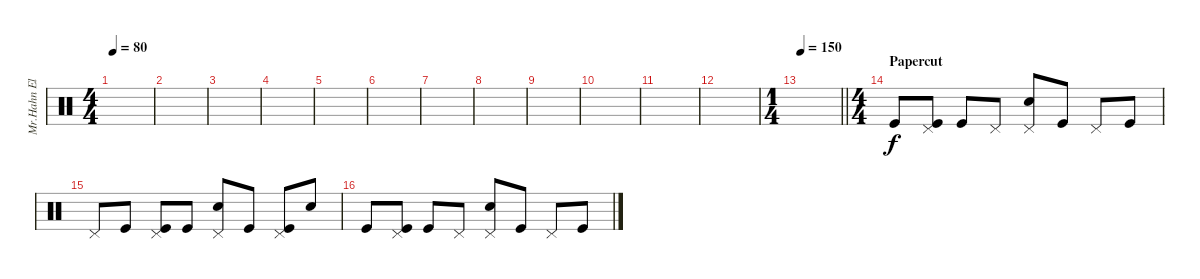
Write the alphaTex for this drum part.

\track ("Mr.Hahn Eletronic Drums" "Mr.Hahn El") {instrument percussion}
\staff {score}
\articulation defaults
\ts (4 4)
\tempo 80
\clef neutral
\ks c
|
|
|
|
|
|
|
|
|
|
|
|
\ts (1 4)
\tempo 150
\barLineRight lightlight
|
\ts (4 4)
\section ("" "Papercut")
"Kick (hit)".8 ("Pedal Hi-Hat (hit)" "Kick (hit)").8 "Kick (hit)".8 "Pedal Hi-Hat (hit)".8 ("Pedal Hi-Hat (hit)" "Snare (hit) 2").8 "Kick (hit)".8 "Pedal Hi-Hat (hit)".8 "Kick (hit)".8 |
"Pedal Hi-Hat (hit)".8 "Kick (hit)".8 ("Pedal Hi-Hat (hit)" "Kick (hit)").8 "Kick (hit)".8 ("Pedal Hi-Hat (hit)" "Snare (hit) 2").8 "Kick (hit)".8 ("Pedal Hi-Hat (hit)" "Kick (hit)").8 "Snare (hit) 2".8 |
"Kick (hit)".8 ("Pedal Hi-Hat (hit)" "Kick (hit)").8 "Kick (hit)".8 "Pedal Hi-Hat (hit)".8 ("Pedal Hi-Hat (hit)" "Snare (hit) 2").8 "Kick (hit)".8 "Pedal Hi-Hat (hit)".8 "Kick (hit)".8
